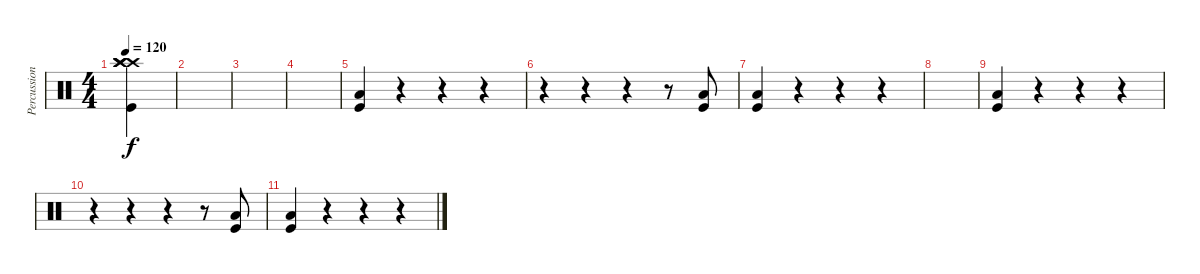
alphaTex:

\track ("Percussion" "Percussion") {instrument percussion}
\staff {score}
\articulation defaults
\ts (4 4)
\tempo 120
\clef neutral
\ks c
("Crash high (hit)" "Crash high (hit)" "Crash high (hit)" "Crash high (hit)" "Kick (hit)").4{dy f} |
|
|
|
("Low Floor Tom (hit)" "Kick (hit)").4 r.4 r.4 r.4 |
r.4 r.4 r.4 r.8 ("Low Floor Tom (hit)" "Kick (hit)").8 |
("Low Floor Tom (hit)" "Kick (hit)").4 r.4 r.4 r.4 |
|
("Low Floor Tom (hit)" "Kick (hit)").4 r.4 r.4 r.4 |
r.4 r.4 r.4 r.8 ("Low Floor Tom (hit)" "Kick (hit)").8 |
("Low Floor Tom (hit)" "Kick (hit)").4 r.4 r.4 r.4
